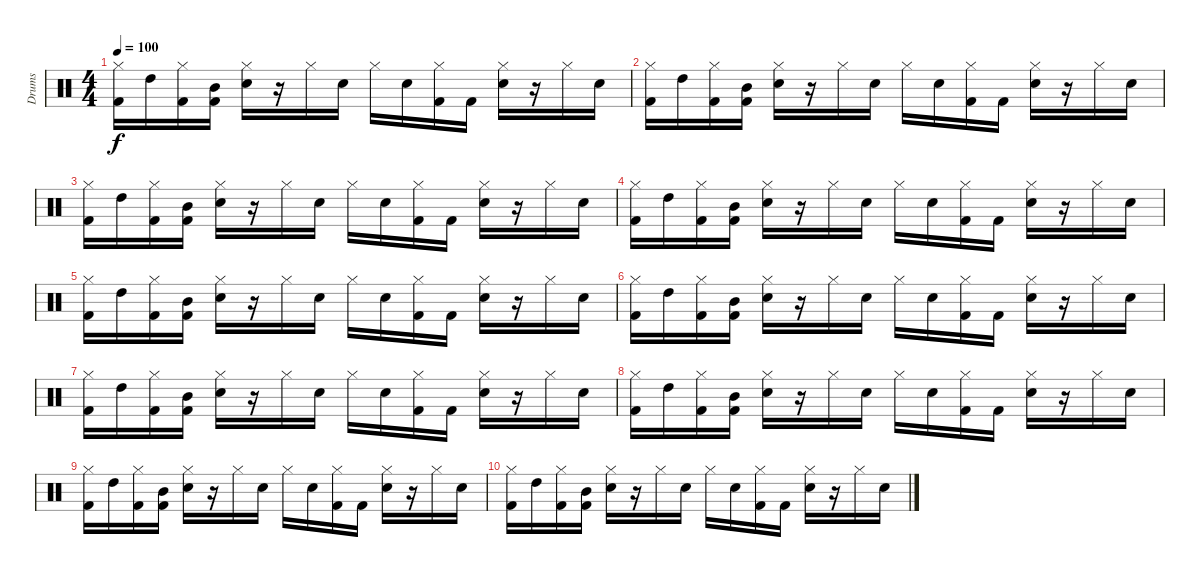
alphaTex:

\track ("Drums" "Drums") {instrument percussion}
\staff {score}
\articulation defaults
\ts (4 4)
\tempo 100
\clef neutral
\ks c
("Hi-Hat (closed)" "Kick (hit) 2").16{dy f} "High Tom (hit)".16 ("Hi-Hat (closed)" "Kick (hit) 2").16 ("Mid Tom (hit)" "Kick (hit) 2").16 ("Hi-Hat (closed)" "Electric Snare (hit)").16 r.16 "Hi-Hat (closed)".16 "Electric Snare (hit)".16 "Hi-Hat (closed)".16 "Electric Snare (hit)".16 ("Hi-Hat (closed)" "Kick (hit) 2").16 "Kick (hit) 2".16 ("Hi-Hat (closed)" "Electric Snare (hit)").16 r.16 "Hi-Hat (closed)".16 "Electric Snare (hit)".16 |
("Hi-Hat (closed)" "Kick (hit) 2").16 "High Tom (hit)".16 ("Hi-Hat (closed)" "Kick (hit) 2").16 ("Mid Tom (hit)" "Kick (hit) 2").16 ("Hi-Hat (closed)" "Electric Snare (hit)").16 r.16 "Hi-Hat (closed)".16 "Electric Snare (hit)".16 "Hi-Hat (closed)".16 "Electric Snare (hit)".16 ("Hi-Hat (closed)" "Kick (hit) 2").16 "Kick (hit) 2".16 ("Hi-Hat (closed)" "Electric Snare (hit)").16 r.16 "Hi-Hat (closed)".16 "Electric Snare (hit)".16 |
("Hi-Hat (closed)" "Kick (hit) 2").16 "High Tom (hit)".16 ("Hi-Hat (closed)" "Kick (hit) 2").16 ("Mid Tom (hit)" "Kick (hit) 2").16 ("Hi-Hat (closed)" "Electric Snare (hit)").16 r.16 "Hi-Hat (closed)".16 "Electric Snare (hit)".16 "Hi-Hat (closed)".16 "Electric Snare (hit)".16 ("Hi-Hat (closed)" "Kick (hit) 2").16 "Kick (hit) 2".16 ("Hi-Hat (closed)" "Electric Snare (hit)").16 r.16 "Hi-Hat (closed)".16 "Electric Snare (hit)".16 |
("Hi-Hat (closed)" "Kick (hit) 2").16 "High Tom (hit)".16 ("Hi-Hat (closed)" "Kick (hit) 2").16 ("Mid Tom (hit)" "Kick (hit) 2").16 ("Hi-Hat (closed)" "Electric Snare (hit)").16 r.16 "Hi-Hat (closed)".16 "Electric Snare (hit)".16 "Hi-Hat (closed)".16 "Electric Snare (hit)".16 ("Hi-Hat (closed)" "Kick (hit) 2").16 "Kick (hit) 2".16 ("Hi-Hat (closed)" "Electric Snare (hit)").16 r.16 "Hi-Hat (closed)".16 "Electric Snare (hit)".16 |
("Hi-Hat (closed)" "Kick (hit) 2").16 "High Tom (hit)".16 ("Hi-Hat (closed)" "Kick (hit) 2").16 ("Mid Tom (hit)" "Kick (hit) 2").16 ("Hi-Hat (closed)" "Electric Snare (hit)").16 r.16 "Hi-Hat (closed)".16 "Electric Snare (hit)".16 "Hi-Hat (closed)".16 "Electric Snare (hit)".16 ("Hi-Hat (closed)" "Kick (hit) 2").16 "Kick (hit) 2".16 ("Hi-Hat (closed)" "Electric Snare (hit)").16 r.16 "Hi-Hat (closed)".16 "Electric Snare (hit)".16 |
("Hi-Hat (closed)" "Kick (hit) 2").16 "High Tom (hit)".16 ("Hi-Hat (closed)" "Kick (hit) 2").16 ("Mid Tom (hit)" "Kick (hit) 2").16 ("Hi-Hat (closed)" "Electric Snare (hit)").16 r.16 "Hi-Hat (closed)".16 "Electric Snare (hit)".16 "Hi-Hat (closed)".16 "Electric Snare (hit)".16 ("Hi-Hat (closed)" "Kick (hit) 2").16 "Kick (hit) 2".16 ("Hi-Hat (closed)" "Electric Snare (hit)").16 r.16 "Hi-Hat (closed)".16 "Electric Snare (hit)".16 |
("Hi-Hat (closed)" "Kick (hit) 2").16 "High Tom (hit)".16 ("Hi-Hat (closed)" "Kick (hit) 2").16 ("Mid Tom (hit)" "Kick (hit) 2").16 ("Hi-Hat (closed)" "Electric Snare (hit)").16 r.16 "Hi-Hat (closed)".16 "Electric Snare (hit)".16 "Hi-Hat (closed)".16 "Electric Snare (hit)".16 ("Hi-Hat (closed)" "Kick (hit) 2").16 "Kick (hit) 2".16 ("Hi-Hat (closed)" "Electric Snare (hit)").16 r.16 "Hi-Hat (closed)".16 "Electric Snare (hit)".16 |
("Hi-Hat (closed)" "Kick (hit) 2").16 "High Tom (hit)".16 ("Hi-Hat (closed)" "Kick (hit) 2").16 ("Mid Tom (hit)" "Kick (hit) 2").16 ("Hi-Hat (closed)" "Electric Snare (hit)").16 r.16 "Hi-Hat (closed)".16 "Electric Snare (hit)".16 "Hi-Hat (closed)".16 "Electric Snare (hit)".16 ("Hi-Hat (closed)" "Kick (hit) 2").16 "Kick (hit) 2".16 ("Hi-Hat (closed)" "Electric Snare (hit)").16 r.16 "Hi-Hat (closed)".16 "Electric Snare (hit)".16 |
("Hi-Hat (closed)" "Kick (hit) 2").16 "High Tom (hit)".16 ("Hi-Hat (closed)" "Kick (hit) 2").16 ("Mid Tom (hit)" "Kick (hit) 2").16 ("Hi-Hat (closed)" "Electric Snare (hit)").16 r.16 "Hi-Hat (closed)".16 "Electric Snare (hit)".16 "Hi-Hat (closed)".16 "Electric Snare (hit)".16 ("Hi-Hat (closed)" "Kick (hit) 2").16 "Kick (hit) 2".16 ("Hi-Hat (closed)" "Electric Snare (hit)").16 r.16 "Hi-Hat (closed)".16 "Electric Snare (hit)".16 |
("Hi-Hat (closed)" "Kick (hit) 2").16 "High Tom (hit)".16 ("Hi-Hat (closed)" "Kick (hit) 2").16 ("Mid Tom (hit)" "Kick (hit) 2").16 ("Hi-Hat (closed)" "Electric Snare (hit)").16 r.16 "Hi-Hat (closed)".16 "Electric Snare (hit)".16 "Hi-Hat (closed)".16 "Electric Snare (hit)".16 ("Hi-Hat (closed)" "Kick (hit) 2").16 "Kick (hit) 2".16 ("Hi-Hat (closed)" "Electric Snare (hit)").16 r.16 "Hi-Hat (closed)".16 "Electric Snare (hit)".16
